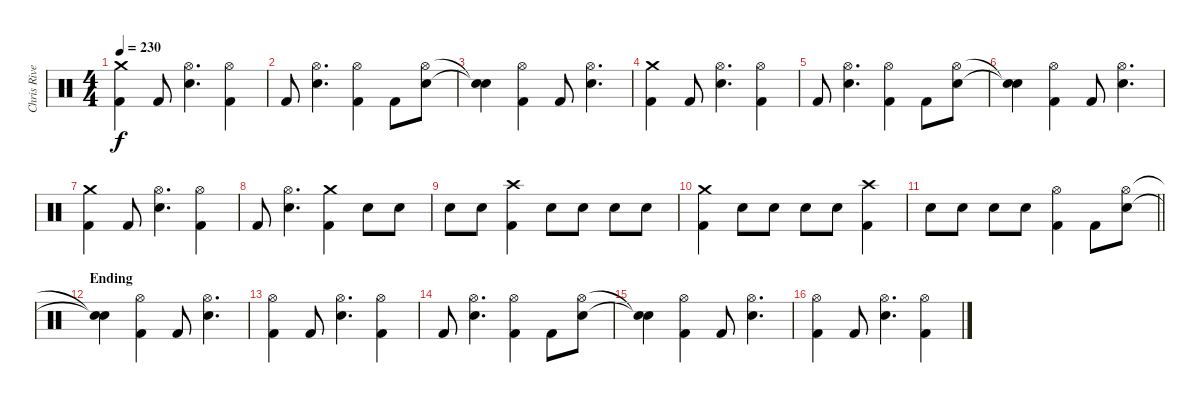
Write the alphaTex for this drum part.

\track ("Chris Rivers" "Chris Rive") {instrument percussion}
\staff {score}
\articulation defaults
\ts (4 4)
\tempo 230
\clef neutral
\ks c
("Crash medium (hit)" "Kick (hit) 2").4{dy f} "Kick (hit) 2".8 ("Hi-Hat (open)" "Electric Snare (hit)").4{d} ("Hi-Hat (open)" "Kick (hit) 2").4 |
"Kick (hit) 2".8 ("Hi-Hat (open)" "Electric Snare (hit)").4{d} ("Hi-Hat (open)" "Kick (hit) 2").4 "Kick (hit) 2".8 ("Hi-Hat (open)" "Electric Snare (hit)").8 |
("Snare (hit)"{t} "Snare (hit)"{t}).4 ("Hi-Hat (open)" "Kick (hit) 2").4 "Kick (hit) 2".8 ("Hi-Hat (open)" "Electric Snare (hit)").4{d} |
("Crash medium (hit)" "Kick (hit) 2").4 "Kick (hit) 2".8 ("Hi-Hat (open)" "Electric Snare (hit)").4{d} ("Hi-Hat (open)" "Kick (hit) 2").4 |
"Kick (hit) 2".8 ("Hi-Hat (open)" "Electric Snare (hit)").4{d} ("Hi-Hat (open)" "Kick (hit) 2").4 "Kick (hit) 2".8 ("Hi-Hat (open)" "Electric Snare (hit)").8 |
("Snare (hit)"{t} "Snare (hit)"{t}).4 ("Hi-Hat (open)" "Kick (hit) 2").4 "Kick (hit) 2".8 ("Hi-Hat (open)" "Electric Snare (hit)").4{d} |
("Crash medium (hit)" "Kick (hit) 2").4 "Kick (hit) 2".8 ("Hi-Hat (open)" "Electric Snare (hit)").4{d} ("Hi-Hat (open)" "Kick (hit) 2").4 |
"Kick (hit) 2".8 ("Hi-Hat (open)" "Electric Snare (hit)").4{d} ("Crash medium (hit)" "Kick (hit) 2").4 "Electric Snare (hit)".8 "Electric Snare (hit)".8 |
"Electric Snare (hit)".8 "Electric Snare (hit)".8 ("Crash high (hit)" "Kick (hit) 2").4 "Electric Snare (hit)".8 "Electric Snare (hit)".8 "Electric Snare (hit)".8 "Electric Snare (hit)".8 |
("Crash medium (hit)" "Kick (hit) 2").4 "Electric Snare (hit)".8 "Electric Snare (hit)".8 "Electric Snare (hit)".8 "Electric Snare (hit)".8 ("Crash high (hit)" "Kick (hit) 2").4 |
\barLineRight lightlight "Electric Snare (hit)".8 "Electric Snare (hit)".8 "Electric Snare (hit)".8 "Electric Snare (hit)".8
("Hi-Hat (open)" "Kick (hit) 2").4 "Kick (hit) 2".8 ("Hi-Hat (open)" "Electric Snare (hit)").8 |
\section ("" "Ending")
("Snare (hit)"{t} "Snare (hit)"{t}).4 ("Hi-Hat (open)" "Kick (hit) 2").4 "Kick (hit) 2".8 ("Hi-Hat (open)" "Electric Snare (hit)").4{d} |
("Hi-Hat (open)" "Kick (hit) 2").4 "Kick (hit) 2".8 ("Hi-Hat (open)" "Electric Snare (hit)").4{d} ("Hi-Hat (open)" "Kick (hit) 2").4 |
"Kick (hit) 2".8 ("Hi-Hat (open)" "Electric Snare (hit)").4{d} ("Hi-Hat (open)" "Kick (hit) 2").4 "Kick (hit) 2".8 ("Hi-Hat (open)" "Electric Snare (hit)").8 |
("Snare (hit)"{t} "Snare (hit)"{t}).4 ("Hi-Hat (open)" "Kick (hit) 2").4 "Kick (hit) 2".8 ("Hi-Hat (open)" "Electric Snare (hit)").4{d} |
("Hi-Hat (open)" "Kick (hit) 2").4 "Kick (hit) 2".8 ("Hi-Hat (open)" "Electric Snare (hit)").4{d} ("Hi-Hat (open)" "Kick (hit) 2").4
